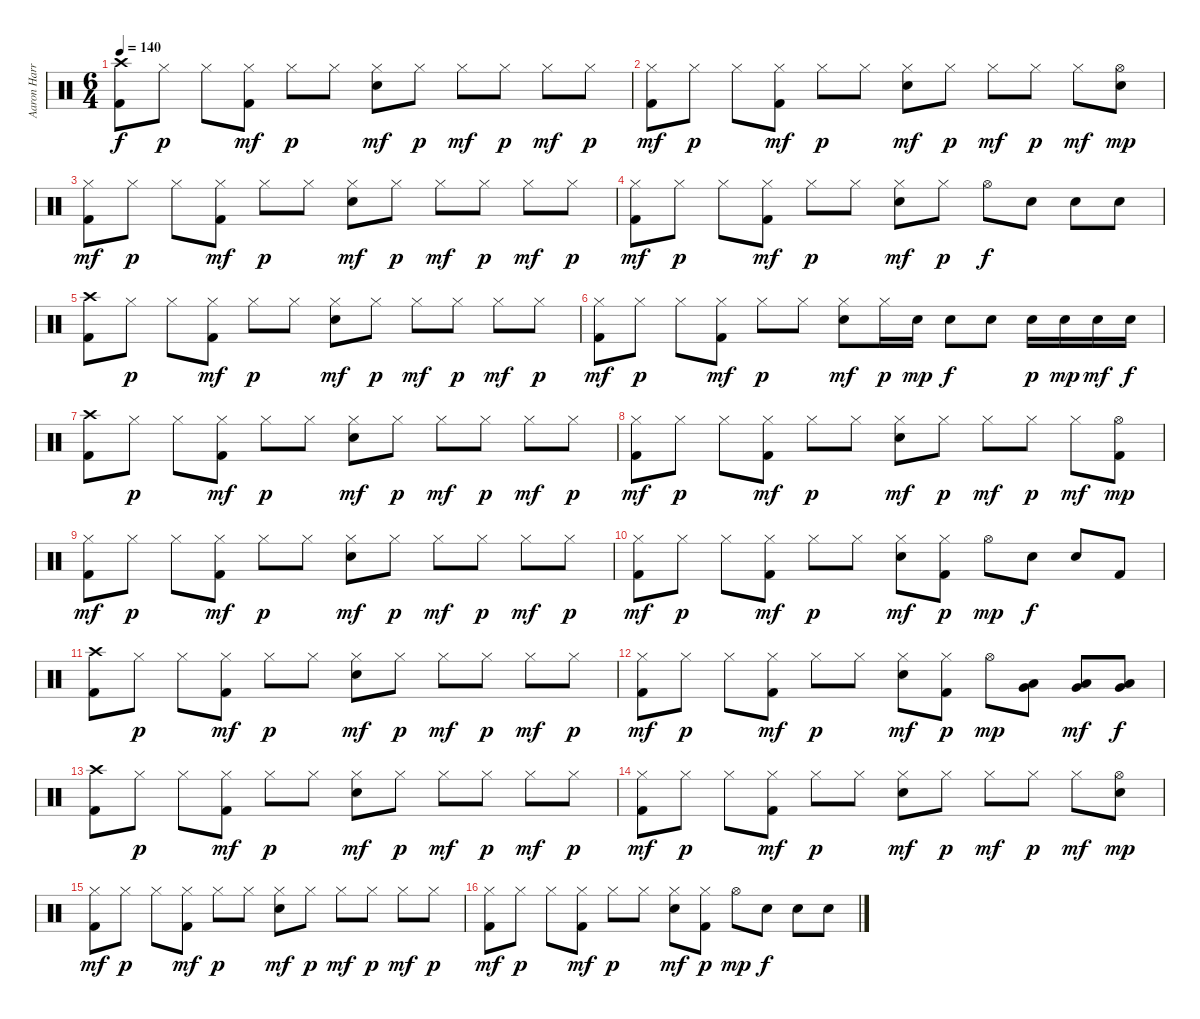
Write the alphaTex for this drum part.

\track ("Aaron Harris" "Aaron Harr") {instrument percussion}
\staff {score}
\articulation defaults
\ts (6 4)
\tempo 140
\clef neutral
\ks c
("Crash high (hit)" "Kick (hit) 2").8{dy f} "Hi-Hat (closed)".8{dy p} "Hi-Hat (closed)".8 ("Hi-Hat (closed)" "Kick (hit) 2").8{dy mf} "Hi-Hat (closed)".8{dy p} "Hi-Hat (closed)".8 ("Hi-Hat (closed)" "Electric Snare (hit)").8{dy mf} "Hi-Hat (closed)".8{dy p} "Hi-Hat (closed)".8{dy mf} "Hi-Hat (closed)".8{dy p} "Hi-Hat (closed)".8{dy mf} "Hi-Hat (closed)".8{dy p} |
("Hi-Hat (closed)" "Kick (hit) 2").8{dy mf} "Hi-Hat (closed)".8{dy p} "Hi-Hat (closed)".8 ("Hi-Hat (closed)" "Kick (hit) 2").8{dy mf} "Hi-Hat (closed)".8{dy p} "Hi-Hat (closed)".8 ("Hi-Hat (closed)" "Electric Snare (hit)").8{dy mf} "Hi-Hat (closed)".8{dy p} "Hi-Hat (closed)".8{dy mf} "Hi-Hat (closed)".8{dy p} "Hi-Hat (closed)".8{dy mf} ("Hi-Hat (open)" "Electric Snare (hit)").8{dy mp} |
("Hi-Hat (closed)" "Kick (hit) 2").8{dy mf} "Hi-Hat (closed)".8{dy p} "Hi-Hat (closed)".8 ("Hi-Hat (closed)" "Kick (hit) 2").8{dy mf} "Hi-Hat (closed)".8{dy p} "Hi-Hat (closed)".8 ("Hi-Hat (closed)" "Electric Snare (hit)").8{dy mf} "Hi-Hat (closed)".8{dy p} "Hi-Hat (closed)".8{dy mf} "Hi-Hat (closed)".8{dy p} "Hi-Hat (closed)".8{dy mf} "Hi-Hat (closed)".8{dy p} |
("Hi-Hat (closed)" "Kick (hit) 2").8{dy mf} "Hi-Hat (closed)".8{dy p} "Hi-Hat (closed)".8 ("Hi-Hat (closed)" "Kick (hit) 2").8{dy mf} "Hi-Hat (closed)".8{dy p} "Hi-Hat (closed)".8 ("Hi-Hat (closed)" "Electric Snare (hit)").8{dy mf} "Hi-Hat (closed)".8{dy p} "Hi-Hat (open)".8{dy f} "Electric Snare (hit)".8 "Electric Snare (hit)".8 "Electric Snare (hit)".8 |
("Crash high (hit)" "Kick (hit) 2").8 "Hi-Hat (closed)".8{dy p} "Hi-Hat (closed)".8 ("Hi-Hat (closed)" "Kick (hit) 2").8{dy mf} "Hi-Hat (closed)".8{dy p} "Hi-Hat (closed)".8 ("Hi-Hat (closed)" "Electric Snare (hit)").8{dy mf} "Hi-Hat (closed)".8{dy p} "Hi-Hat (closed)".8{dy mf} "Hi-Hat (closed)".8{dy p} "Hi-Hat (closed)".8{dy mf} "Hi-Hat (closed)".8{dy p} |
("Hi-Hat (closed)" "Kick (hit) 2").8{dy mf} "Hi-Hat (closed)".8{dy p} "Hi-Hat (closed)".8 ("Hi-Hat (closed)" "Kick (hit) 2").8{dy mf} "Hi-Hat (closed)".8{dy p} "Hi-Hat (closed)".8 ("Hi-Hat (closed)" "Electric Snare (hit)").8{dy mf} "Hi-Hat (closed)".16{dy p} "Electric Snare (hit)".16{dy mp} "Electric Snare (hit)".8{dy f} "Electric Snare (hit)".8 "Electric Snare (hit)".16{dy p} "Electric Snare (hit)".16{dy mp} "Electric Snare (hit)".16{dy mf} "Electric Snare (hit)".16{dy f} |
("Crash high (hit)" "Kick (hit) 2").8 "Hi-Hat (closed)".8{dy p} "Hi-Hat (closed)".8 ("Hi-Hat (closed)" "Kick (hit) 2").8{dy mf} "Hi-Hat (closed)".8{dy p} "Hi-Hat (closed)".8 ("Hi-Hat (closed)" "Electric Snare (hit)").8{dy mf} "Hi-Hat (closed)".8{dy p} "Hi-Hat (closed)".8{dy mf} "Hi-Hat (closed)".8{dy p} "Hi-Hat (closed)".8{dy mf} "Hi-Hat (closed)".8{dy p} |
("Hi-Hat (closed)" "Kick (hit) 2").8{dy mf} "Hi-Hat (closed)".8{dy p} "Hi-Hat (closed)".8 ("Hi-Hat (closed)" "Kick (hit) 2").8{dy mf} "Hi-Hat (closed)".8{dy p} "Hi-Hat (closed)".8 ("Hi-Hat (closed)" "Electric Snare (hit)").8{dy mf} "Hi-Hat (closed)".8{dy p} "Hi-Hat (closed)".8{dy mf} "Hi-Hat (closed)".8{dy p} "Hi-Hat (closed)".8{dy mf} ("Hi-Hat (open)" "Kick (hit) 2").8{dy mp} |
("Hi-Hat (closed)" "Kick (hit) 2").8{dy mf} "Hi-Hat (closed)".8{dy p} "Hi-Hat (closed)".8 ("Hi-Hat (closed)" "Kick (hit) 2").8{dy mf} "Hi-Hat (closed)".8{dy p} "Hi-Hat (closed)".8 ("Hi-Hat (closed)" "Electric Snare (hit)").8{dy mf} "Hi-Hat (closed)".8{dy p} "Hi-Hat (closed)".8{dy mf} "Hi-Hat (closed)".8{dy p} "Hi-Hat (closed)".8{dy mf} "Hi-Hat (closed)".8{dy p} |
("Hi-Hat (closed)" "Kick (hit) 2").8{dy mf} "Hi-Hat (closed)".8{dy p} "Hi-Hat (closed)".8 ("Hi-Hat (closed)" "Kick (hit) 2").8{dy mf} "Hi-Hat (closed)".8{dy p} "Hi-Hat (closed)".8 ("Hi-Hat (closed)" "Electric Snare (hit)").8{dy mf} ("Hi-Hat (closed)" "Kick (hit) 2").8{dy p} "Hi-Hat (open)".8{dy mp} "Electric Snare (hit)".8{dy f} "Electric Snare (hit)".8 "Kick (hit) 2".8 |
("Crash high (hit)" "Kick (hit) 2").8 "Hi-Hat (closed)".8{dy p} "Hi-Hat (closed)".8 ("Hi-Hat (closed)" "Kick (hit) 2").8{dy mf} "Hi-Hat (closed)".8{dy p} "Hi-Hat (closed)".8 ("Hi-Hat (closed)" "Electric Snare (hit)").8{dy mf} "Hi-Hat (closed)".8{dy p} "Hi-Hat (closed)".8{dy mf} "Hi-Hat (closed)".8{dy p} "Hi-Hat (closed)".8{dy mf} "Hi-Hat (closed)".8{dy p} |
("Hi-Hat (closed)" "Kick (hit) 2").8{dy mf} "Hi-Hat (closed)".8{dy p} "Hi-Hat (closed)".8 ("Hi-Hat (closed)" "Kick (hit) 2").8{dy mf} "Hi-Hat (closed)".8{dy p} "Hi-Hat (closed)".8 ("Hi-Hat (closed)" "Electric Snare (hit)").8{dy mf} ("Hi-Hat (closed)" "Kick (hit) 2").8{dy p} "Hi-Hat (open)".8{dy mp} ("Low Tom (hit)" "Very Low Tom (hit)").8 ("Low Tom (hit)" "Very Low Tom (hit)").8{dy mf} ("Low Tom (hit)" "Very Low Tom (hit)").8{dy f} |
("Crash high (hit)" "Kick (hit) 2").8 "Hi-Hat (closed)".8{dy p} "Hi-Hat (closed)".8 ("Hi-Hat (closed)" "Kick (hit) 2").8{dy mf} "Hi-Hat (closed)".8{dy p} "Hi-Hat (closed)".8 ("Hi-Hat (closed)" "Electric Snare (hit)").8{dy mf} "Hi-Hat (closed)".8{dy p} "Hi-Hat (closed)".8{dy mf} "Hi-Hat (closed)".8{dy p} "Hi-Hat (closed)".8{dy mf} "Hi-Hat (closed)".8{dy p} |
("Hi-Hat (closed)" "Kick (hit) 2").8{dy mf} "Hi-Hat (closed)".8{dy p} "Hi-Hat (closed)".8 ("Hi-Hat (closed)" "Kick (hit) 2").8{dy mf} "Hi-Hat (closed)".8{dy p} "Hi-Hat (closed)".8 ("Hi-Hat (closed)" "Electric Snare (hit)").8{dy mf} "Hi-Hat (closed)".8{dy p} "Hi-Hat (closed)".8{dy mf} "Hi-Hat (closed)".8{dy p} "Hi-Hat (closed)".8{dy mf} ("Hi-Hat (open)" "Electric Snare (hit)").8{dy mp} |
("Hi-Hat (closed)" "Kick (hit) 2").8{dy mf} "Hi-Hat (closed)".8{dy p} "Hi-Hat (closed)".8 ("Hi-Hat (closed)" "Kick (hit) 2").8{dy mf} "Hi-Hat (closed)".8{dy p} "Hi-Hat (closed)".8 ("Hi-Hat (closed)" "Electric Snare (hit)").8{dy mf} "Hi-Hat (closed)".8{dy p} "Hi-Hat (closed)".8{dy mf} "Hi-Hat (closed)".8{dy p} "Hi-Hat (closed)".8{dy mf} "Hi-Hat (closed)".8{dy p} |
("Hi-Hat (closed)" "Kick (hit) 2").8{dy mf} "Hi-Hat (closed)".8{dy p} "Hi-Hat (closed)".8 ("Hi-Hat (closed)" "Kick (hit) 2").8{dy mf} "Hi-Hat (closed)".8{dy p} "Hi-Hat (closed)".8 ("Hi-Hat (closed)" "Electric Snare (hit)").8{dy mf} ("Hi-Hat (closed)" "Kick (hit) 2").8{dy p} "Hi-Hat (open)".8{dy mp} "Electric Snare (hit)".8{dy f} "Electric Snare (hit)".8 "Electric Snare (hit)".8
